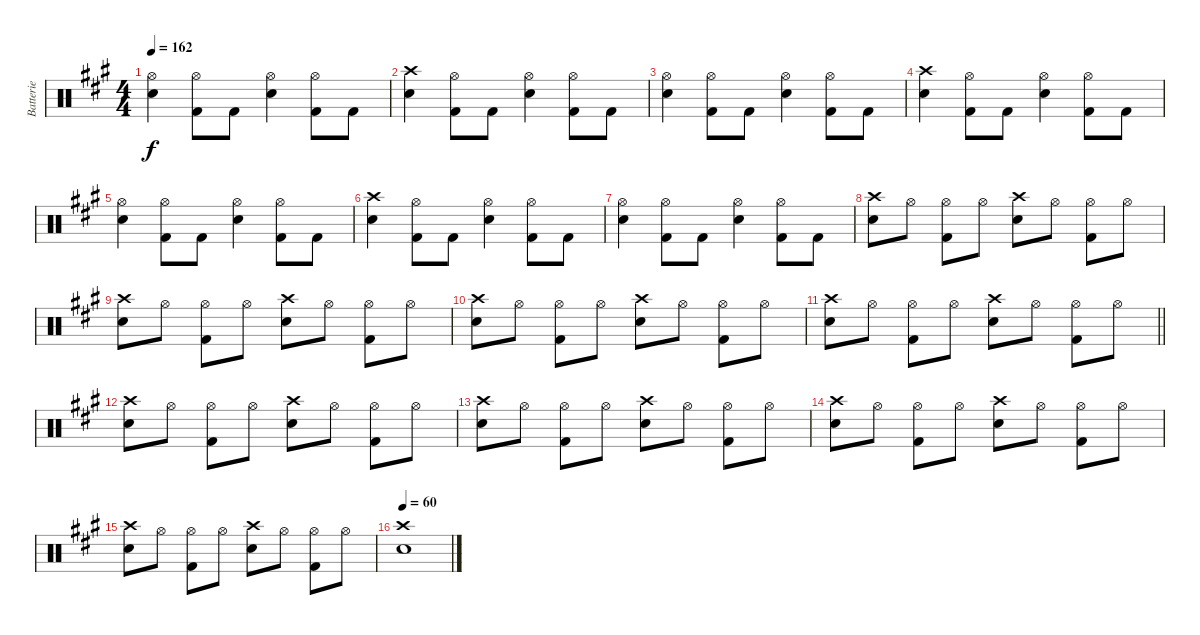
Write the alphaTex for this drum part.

\track ("Batterie" "Batterie") {instrument percussion}
\staff {score}
\articulation defaults
\ts (4 4)
\tempo 162
\clef neutral
\ks a
("Hi-Hat (open)" "Snare (hit) 2").4{dy f} ("Hi-Hat (open)" "Kick (hit) 2").8 "Kick (hit) 2".8 ("Hi-Hat (open)" "Snare (hit) 2").4 ("Hi-Hat (open)" "Kick (hit) 2").8 "Kick (hit) 2".8 |
("Crash high (hit)" "Snare (hit) 2").4 ("Hi-Hat (open)" "Kick (hit) 2").8 "Kick (hit) 2".8 ("Hi-Hat (open)" "Snare (hit) 2").4 ("Hi-Hat (open)" "Kick (hit) 2").8 "Kick (hit) 2".8 |
("Hi-Hat (open)" "Snare (hit) 2").4 ("Hi-Hat (open)" "Kick (hit) 2").8 "Kick (hit) 2".8 ("Hi-Hat (open)" "Snare (hit) 2").4 ("Hi-Hat (open)" "Kick (hit) 2").8 "Kick (hit) 2".8 |
("Crash high (hit)" "Snare (hit) 2").4 ("Hi-Hat (open)" "Kick (hit) 2").8 "Kick (hit) 2".8 ("Hi-Hat (open)" "Snare (hit) 2").4 ("Hi-Hat (open)" "Kick (hit) 2").8 "Kick (hit) 2".8 |
("Hi-Hat (open)" "Snare (hit) 2").4 ("Hi-Hat (open)" "Kick (hit) 2").8 "Kick (hit) 2".8 ("Hi-Hat (open)" "Snare (hit) 2").4 ("Hi-Hat (open)" "Kick (hit) 2").8 "Kick (hit) 2".8 |
("Crash high (hit)" "Snare (hit) 2").4 ("Hi-Hat (open)" "Kick (hit) 2").8 "Kick (hit) 2".8 ("Hi-Hat (open)" "Snare (hit) 2").4 ("Hi-Hat (open)" "Kick (hit) 2").8 "Kick (hit) 2".8 |
("Hi-Hat (open)" "Snare (hit) 2").4 ("Hi-Hat (open)" "Kick (hit) 2").8 "Kick (hit) 2".8 ("Hi-Hat (open)" "Snare (hit) 2").4 ("Hi-Hat (open)" "Kick (hit) 2").8 "Kick (hit) 2".8 |
("Crash high (hit)" "Snare (hit) 2").8 "Hi-Hat (open)".8 ("Hi-Hat (open)" "Kick (hit) 2").8 "Hi-Hat (open)".8 ("Crash high (hit)" "Snare (hit) 2").8 "Hi-Hat (open)".8 ("Hi-Hat (open)" "Kick (hit) 2").8 "Hi-Hat (open)".8 |
("Crash high (hit)" "Snare (hit) 2").8 "Hi-Hat (open)".8 ("Hi-Hat (open)" "Kick (hit) 2").8 "Hi-Hat (open)".8 ("Crash high (hit)" "Snare (hit) 2").8 "Hi-Hat (open)".8 ("Hi-Hat (open)" "Kick (hit) 2").8 "Hi-Hat (open)".8 |
("Crash high (hit)" "Snare (hit) 2").8 "Hi-Hat (open)".8 ("Hi-Hat (open)" "Kick (hit) 2").8 "Hi-Hat (open)".8 ("Crash high (hit)" "Snare (hit) 2").8 "Hi-Hat (open)".8 ("Hi-Hat (open)" "Kick (hit) 2").8 "Hi-Hat (open)".8 |
\barLineRight lightlight
("Crash high (hit)" "Snare (hit) 2").8 "Hi-Hat (open)".8 ("Hi-Hat (open)" "Kick (hit) 2").8 "Hi-Hat (open)".8 ("Crash high (hit)" "Snare (hit) 2").8 "Hi-Hat (open)".8 ("Hi-Hat (open)" "Kick (hit) 2").8 "Hi-Hat (open)".8 |
("Crash high (hit)" "Snare (hit) 2").8 "Hi-Hat (open)".8 ("Hi-Hat (open)" "Kick (hit) 2").8 "Hi-Hat (open)".8 ("Crash high (hit)" "Snare (hit) 2").8 "Hi-Hat (open)".8 ("Hi-Hat (open)" "Kick (hit) 2").8 "Hi-Hat (open)".8 |
("Crash high (hit)" "Snare (hit) 2").8 "Hi-Hat (open)".8 ("Hi-Hat (open)" "Kick (hit) 2").8 "Hi-Hat (open)".8 ("Crash high (hit)" "Snare (hit) 2").8 "Hi-Hat (open)".8 ("Hi-Hat (open)" "Kick (hit) 2").8 "Hi-Hat (open)".8 |
("Crash high (hit)" "Snare (hit) 2").8 "Hi-Hat (open)".8 ("Hi-Hat (open)" "Kick (hit) 2").8 "Hi-Hat (open)".8 ("Crash high (hit)" "Snare (hit) 2").8 "Hi-Hat (open)".8 ("Hi-Hat (open)" "Kick (hit) 2").8 "Hi-Hat (open)".8 |
("Crash high (hit)" "Snare (hit) 2").8 "Hi-Hat (open)".8 ("Hi-Hat (open)" "Kick (hit) 2").8 "Hi-Hat (open)".8 ("Crash high (hit)" "Snare (hit) 2").8 "Hi-Hat (open)".8 ("Hi-Hat (open)" "Kick (hit) 2").8 "Hi-Hat (open)".8 |
\tempo 60
("Crash high (hit)" "Snare (hit) 2").1
